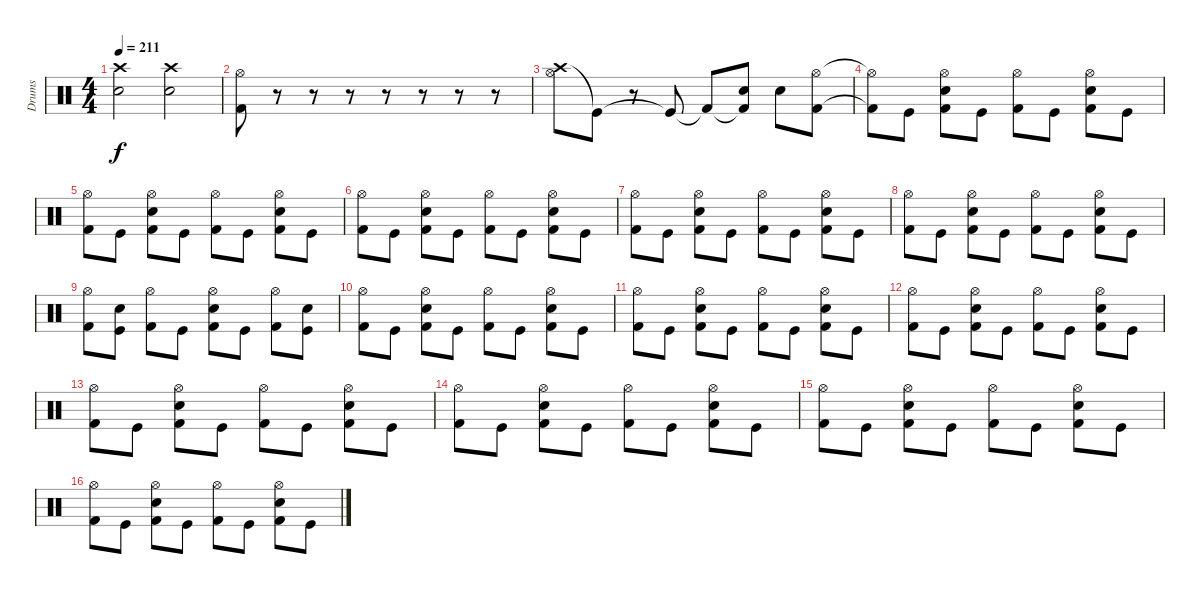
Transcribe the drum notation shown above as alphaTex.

\track ("Drums" "Drums") {instrument percussion}
\staff {score}
\articulation defaults
\ts (4 4)
\tempo 211
\clef neutral
\ks c
("Crash high (hit)" "Snare (hit) 2").2{dy f} ("Crash high (hit)" "Snare (hit) 2").2 |
("Kick (hit) 2" "Hi-Hat (open)").8 r.8 r.8 r.8 r.8 r.8 r.8 r.8 |
("Crash high (hit)" "Hi-Hat (open)").8 "Kick (hit)"{t}.8 r.8 "Kick (hit)"{t}.8 "Kick (hit) 2"{t}.8 ("Kick (hit) 2"{t} "Snare (hit) 2").8 "Snare (hit) 2".8 ("Kick (hit) 2" "Hi-Hat (open)").8 |
("Kick (hit) 2"{t} "Hi-Hat (open)"{t}).8 "Kick (hit)".8 ("Kick (hit) 2" "Snare (hit) 2" "Hi-Hat (open)").8 "Kick (hit)".8 ("Kick (hit) 2" "Hi-Hat (open)").8 "Kick (hit)".8 ("Kick (hit) 2" "Snare (hit) 2" "Hi-Hat (open)").8 "Kick (hit)".8 |
("Kick (hit) 2" "Hi-Hat (open)").8 "Kick (hit)".8 ("Kick (hit) 2" "Snare (hit) 2" "Hi-Hat (open)").8 "Kick (hit)".8 ("Kick (hit) 2" "Hi-Hat (open)").8 "Kick (hit)".8 ("Kick (hit) 2" "Snare (hit) 2" "Hi-Hat (open)").8 "Kick (hit)".8 |
("Kick (hit) 2" "Hi-Hat (open)").8 "Kick (hit)".8 ("Kick (hit) 2" "Snare (hit) 2" "Hi-Hat (open)").8 "Kick (hit)".8 ("Kick (hit) 2" "Hi-Hat (open)").8 "Kick (hit)".8 ("Kick (hit) 2" "Snare (hit) 2" "Hi-Hat (open)").8 "Kick (hit)".8 |
("Kick (hit) 2" "Hi-Hat (open)").8 "Kick (hit)".8 ("Kick (hit) 2" "Snare (hit) 2" "Hi-Hat (open)").8 "Kick (hit)".8 ("Kick (hit) 2" "Hi-Hat (open)").8 "Kick (hit)".8 ("Kick (hit) 2" "Snare (hit) 2" "Hi-Hat (open)").8 "Kick (hit)".8 |
("Kick (hit) 2" "Hi-Hat (open)").8 "Kick (hit)".8 ("Kick (hit) 2" "Snare (hit) 2" "Hi-Hat (open)").8 "Kick (hit)".8 ("Kick (hit) 2" "Hi-Hat (open)").8 "Kick (hit)".8 ("Kick (hit) 2" "Snare (hit) 2" "Hi-Hat (open)").8 "Kick (hit)".8 |
("Kick (hit) 2" "Hi-Hat (open)").8 ("Kick (hit)" "Snare (hit) 2").8 ("Kick (hit) 2" "Hi-Hat (open)").8 "Kick (hit)".8 ("Kick (hit) 2" "Snare (hit) 2" "Hi-Hat (open)").8 "Kick (hit)".8 ("Kick (hit) 2" "Hi-Hat (open)").8 ("Kick (hit)" "Snare (hit) 2").8 |
("Kick (hit) 2" "Hi-Hat (open)").8 "Kick (hit)".8 ("Kick (hit) 2" "Snare (hit) 2" "Hi-Hat (open)").8 "Kick (hit)".8 ("Kick (hit) 2" "Hi-Hat (open)").8 "Kick (hit)".8 ("Kick (hit) 2" "Snare (hit) 2" "Hi-Hat (open)").8 "Kick (hit)".8 |
("Kick (hit) 2" "Hi-Hat (open)").8 "Kick (hit)".8 ("Kick (hit) 2" "Snare (hit) 2" "Hi-Hat (open)").8 "Kick (hit)".8 ("Kick (hit) 2" "Hi-Hat (open)").8 "Kick (hit)".8 ("Kick (hit) 2" "Snare (hit) 2" "Hi-Hat (open)").8 "Kick (hit)".8 |
("Kick (hit) 2" "Hi-Hat (open)").8 "Kick (hit)".8 ("Kick (hit) 2" "Snare (hit) 2" "Hi-Hat (open)").8 "Kick (hit)".8 ("Kick (hit) 2" "Hi-Hat (open)").8 "Kick (hit)".8 ("Kick (hit) 2" "Snare (hit) 2" "Hi-Hat (open)").8 "Kick (hit)".8 |
("Kick (hit) 2" "Hi-Hat (open)").8 "Kick (hit)".8 ("Kick (hit) 2" "Snare (hit) 2" "Hi-Hat (open)").8 "Kick (hit)".8 ("Kick (hit) 2" "Hi-Hat (open)").8 "Kick (hit)".8 ("Kick (hit) 2" "Snare (hit) 2" "Hi-Hat (open)").8 "Kick (hit)".8 |
("Kick (hit) 2" "Hi-Hat (open)").8 "Kick (hit)".8 ("Kick (hit) 2" "Snare (hit) 2" "Hi-Hat (open)").8 "Kick (hit)".8 ("Kick (hit) 2" "Hi-Hat (open)").8 "Kick (hit)".8 ("Kick (hit) 2" "Snare (hit) 2" "Hi-Hat (open)").8 "Kick (hit)".8 |
("Kick (hit) 2" "Hi-Hat (open)").8 "Kick (hit)".8 ("Kick (hit) 2" "Snare (hit) 2" "Hi-Hat (open)").8 "Kick (hit)".8 ("Kick (hit) 2" "Hi-Hat (open)").8 "Kick (hit)".8 ("Kick (hit) 2" "Snare (hit) 2" "Hi-Hat (open)").8 "Kick (hit)".8 |
("Kick (hit) 2" "Hi-Hat (open)").8 "Kick (hit)".8 ("Kick (hit) 2" "Snare (hit) 2" "Hi-Hat (open)").8 "Kick (hit)".8 ("Kick (hit) 2" "Hi-Hat (open)").8 "Kick (hit)".8 ("Kick (hit) 2" "Snare (hit) 2" "Hi-Hat (open)").8 "Kick (hit)".8
